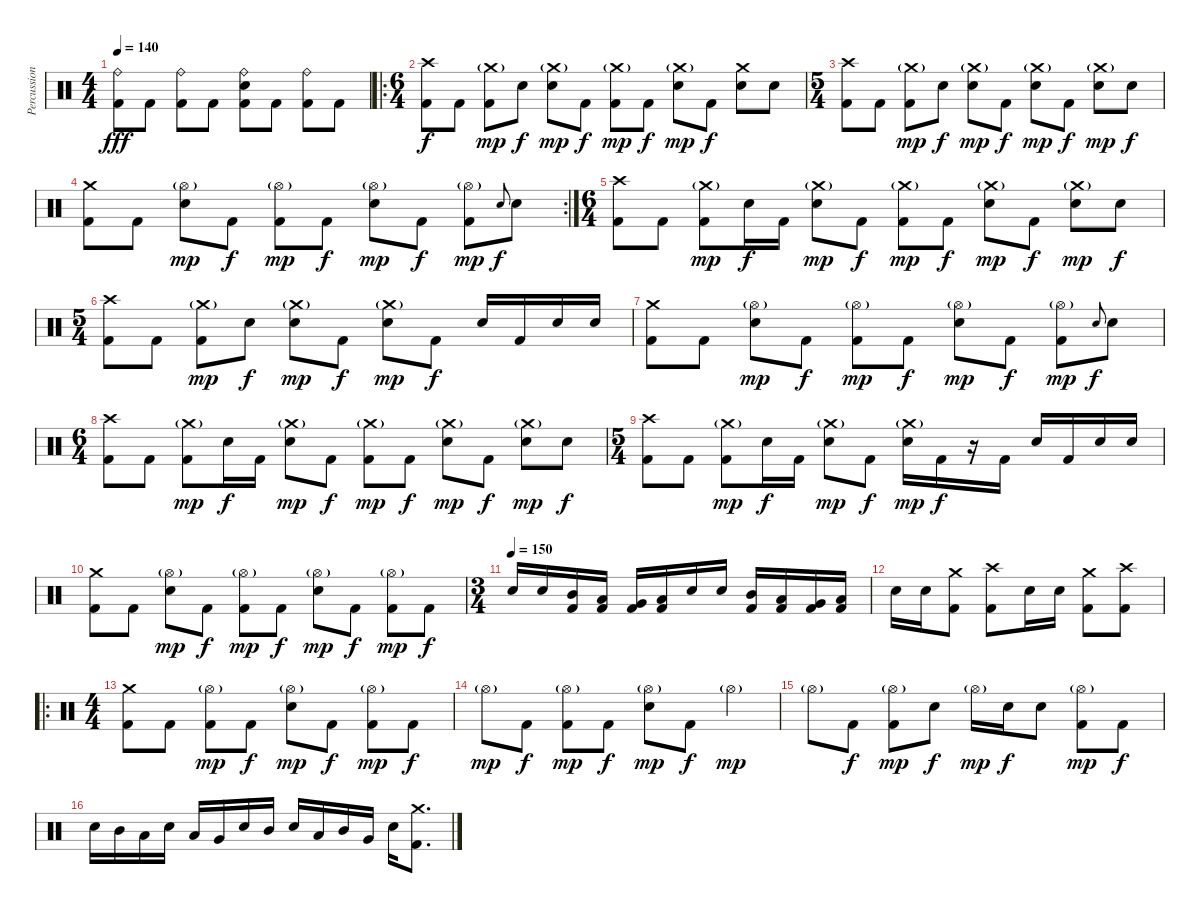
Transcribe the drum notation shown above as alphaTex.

\track ("Percussion" "Percussion") {instrument percussion}
\staff {score}
\articulation defaults
\ts (4 4)
\tempo 140
\clef neutral
\ks c
("Ride (bell)" "Kick (hit) 2").8{dy fff} "Kick (hit) 2".8 ("Ride (bell)" "Kick (hit) 2").8 "Kick (hit) 2".8 ("Ride (bell)" "Electric Snare (hit)" "Kick (hit) 2").8 "Kick (hit) 2".8 ("Ride (bell)" "Kick (hit) 2").8 "Kick (hit) 2".8 |
\ro
\ts (6 4)
("Crash high (hit)" "Kick (hit) 2").8{dy f} "Kick (hit) 2".8 ("Crash medium (hit)"{g} "Kick (hit) 2").8{dy mp} "Electric Snare (hit)".8{dy f} ("Crash medium (hit)"{g} "Electric Snare (hit)").8{dy mp} "Kick (hit) 2".8{dy f} ("Crash medium (hit)"{g} "Kick (hit) 2").8{dy mp} "Kick (hit) 2".8{dy f} ("Crash medium (hit)"{g} "Electric Snare (hit)").8{dy mp} "Kick (hit) 2".8{dy f} ("Crash medium (hit)" "Electric Snare (hit)").8 "Electric Snare (hit)".8 |
\ts (5 4)
("Crash high (hit)" "Kick (hit) 2").8 "Kick (hit) 2".8 ("Crash medium (hit)"{g} "Kick (hit) 2").8{dy mp} "Electric Snare (hit)".8{dy f} ("Crash medium (hit)"{g} "Electric Snare (hit)").8{dy mp} "Kick (hit) 2".8{dy f} ("Crash medium (hit)"{g} "Electric Snare (hit)").8{dy mp} "Kick (hit) 2".8{dy f} ("Crash medium (hit)"{g} "Electric Snare (hit)").8{dy mp} "Electric Snare (hit)".8{dy f} |
\rc 2
("Crash medium (hit)" "Kick (hit) 2").8 "Kick (hit) 2".8 ("Hi-Hat (open)"{g} "Electric Snare (hit)").8{dy mp} "Kick (hit) 2".8{dy f} ("Hi-Hat (open)"{g} "Kick (hit) 2").8{dy mp} "Kick (hit) 2".8{dy f} ("Hi-Hat (open)"{g} "Electric Snare (hit)").8{dy mp} "Kick (hit) 2".8{dy f} ("Hi-Hat (open)"{g} "Kick (hit) 2").8{dy mp} "Electric Snare (hit)".8{gr onbeat dy f} "Electric Snare (hit)".8 |
\ts (6 4)
("Crash high (hit)" "Kick (hit) 2").8 "Kick (hit) 2".8 ("Crash medium (hit)"{g} "Kick (hit) 2").8{dy mp} "Electric Snare (hit)".16{dy f} "Kick (hit) 2".16 ("Crash medium (hit)"{g} "Electric Snare (hit)").8{dy mp} "Kick (hit) 2".8{dy f} ("Crash medium (hit)"{g} "Kick (hit) 2").8{dy mp} "Kick (hit) 2".8{dy f} ("Crash medium (hit)"{g} "Electric Snare (hit)").8{dy mp} "Kick (hit) 2".8{dy f} ("Crash medium (hit)"{g} "Electric Snare (hit)").8{dy mp} "Electric Snare (hit)".8{dy f} |
\ts (5 4)
("Crash high (hit)" "Kick (hit) 2").8 "Kick (hit) 2".8 ("Crash medium (hit)"{g} "Kick (hit) 2").8{dy mp} "Electric Snare (hit)".8{dy f} ("Crash medium (hit)"{g} "Electric Snare (hit)").8{dy mp} "Kick (hit) 2".8{dy f} ("Crash medium (hit)"{g} "Electric Snare (hit)").8{dy mp} "Kick (hit) 2".8{dy f} "Electric Snare (hit)".16 "Kick (hit) 2".16 "Electric Snare (hit)".16 "Electric Snare (hit)".16 |
("Crash medium (hit)" "Kick (hit) 2").8 "Kick (hit) 2".8 ("Hi-Hat (open)"{g} "Electric Snare (hit)").8{dy mp} "Kick (hit) 2".8{dy f} ("Hi-Hat (open)"{g} "Kick (hit) 2").8{dy mp} "Kick (hit) 2".8{dy f} ("Hi-Hat (open)"{g} "Electric Snare (hit)").8{dy mp} "Kick (hit) 2".8{dy f} ("Hi-Hat (open)"{g} "Kick (hit) 2").8{dy mp} "Electric Snare (hit)".8{gr onbeat dy f} "Electric Snare (hit)".8 |
\ts (6 4)
("Crash high (hit)" "Kick (hit) 2").8 "Kick (hit) 2".8 ("Crash medium (hit)"{g} "Kick (hit) 2").8{dy mp} "Electric Snare (hit)".16{dy f} "Kick (hit) 2".16 ("Crash medium (hit)"{g} "Electric Snare (hit)").8{dy mp} "Kick (hit) 2".8{dy f} ("Crash medium (hit)"{g} "Kick (hit) 2").8{dy mp} "Kick (hit) 2".8{dy f} ("Crash medium (hit)"{g} "Electric Snare (hit)").8{dy mp} "Kick (hit) 2".8{dy f} ("Crash medium (hit)"{g} "Electric Snare (hit)").8{dy mp} "Electric Snare (hit)".8{dy f} |
\ts (5 4)
("Crash high (hit)" "Kick (hit) 2").8 "Kick (hit) 2".8 ("Crash medium (hit)"{g} "Kick (hit) 2").8{dy mp} "Electric Snare (hit)".16{dy f} "Kick (hit) 2".16 ("Crash medium (hit)"{g} "Electric Snare (hit)").8{dy mp} "Kick (hit) 2".8{dy f} ("Crash medium (hit)"{g} "Electric Snare (hit)").16{dy mp} "Kick (hit) 2".16{dy f} r.16 "Kick (hit) 2".16 "Electric Snare (hit)".16 "Kick (hit) 2".16 "Electric Snare (hit)".16 "Electric Snare (hit)".16 |
("Crash medium (hit)" "Kick (hit) 2").8 "Kick (hit) 2".8 ("Hi-Hat (open)"{g} "Electric Snare (hit)").8{dy mp} "Kick (hit) 2".8{dy f} ("Hi-Hat (open)"{g} "Kick (hit) 2").8{dy mp} "Kick (hit) 2".8{dy f} ("Hi-Hat (open)"{g} "Electric Snare (hit)").8{dy mp} "Kick (hit) 2".8{dy f} ("Hi-Hat (open)"{g} "Kick (hit) 2").8{dy mp} "Kick (hit) 2".8{dy f} |
\ts (3 4)
\tempo (150)
"Electric Snare (hit)".16 "Electric Snare (hit)".16 ("Mid Tom (hit)" "Kick (hit) 2").16 ("Low Tom (hit)" "Kick (hit) 2").16 ("Very Low Tom (hit)" "Kick (hit) 2").16 ("Low Floor Tom (hit)" "Kick (hit) 2").16 "Electric Snare (hit)".16 "Electric Snare (hit)".16 ("Mid Tom (hit)" "Kick (hit) 2").16 ("Low Tom (hit)" "Kick (hit) 2").16 ("Very Low Tom (hit)" "Kick (hit) 2").16 ("Low Floor Tom (hit)" "Kick (hit) 2").16 |
"Electric Snare (hit)".16 "Electric Snare (hit)".16 ("Crash medium (hit)" "Kick (hit) 2").8 ("Crash high (hit)" "Kick (hit) 2").8 "Electric Snare (hit)".16 "Electric Snare (hit)".16 ("Crash medium (hit)" "Kick (hit) 2").8 ("Crash high (hit)" "Kick (hit) 2").8 |
\ro
\ts (4 4)
("Crash medium (hit)" "Kick (hit) 2").8 "Kick (hit) 2".8 ("Hi-Hat (open)"{g} "Kick (hit) 2").8{dy mp} "Kick (hit) 2".8{dy f} ("Hi-Hat (open)"{g} "Electric Snare (hit)").8{dy mp} "Kick (hit) 2".8{dy f} ("Hi-Hat (open)"{g} "Kick (hit) 2").8{dy mp} "Kick (hit) 2".8{dy f} |
"Hi-Hat (open)"{g}.8{dy mp} "Kick (hit) 2".8{dy f} ("Hi-Hat (open)"{g} "Kick (hit) 2").8{dy mp} "Kick (hit) 2".8{dy f} ("Hi-Hat (open)"{g} "Electric Snare (hit)").8{dy mp} "Kick (hit) 2".8{dy f} "Hi-Hat (open)"{g}.4{dy mp} |
"Hi-Hat (open)"{g}.8 "Kick (hit) 2".8{dy f} ("Hi-Hat (open)"{g} "Kick (hit) 2").8{dy mp} "Electric Snare (hit)".8{dy f} "Hi-Hat (open)"{g}.16{dy mp} "Electric Snare (hit)".16{dy f} "Electric Snare (hit)".8 ("Hi-Hat (open)"{g} "Kick (hit) 2").8{dy mp} "Kick (hit) 2".8{dy f} |
"Electric Snare (hit)".16 "Mid Tom (hit)".16 "Low Tom (hit)".16 "Electric Snare (hit)".16 "Low Tom (hit)".16 "Very Low Tom (hit)".16 "Electric Snare (hit)".16 "Mid Tom (hit)".16 "Electric Snare (hit)".16 "Low Tom (hit)".16 "Mid Tom (hit)".16 "Very Low Tom (hit)".16 "Electric Snare (hit)".16 ("Crash medium (hit)" "Kick (hit) 2").8{d}
